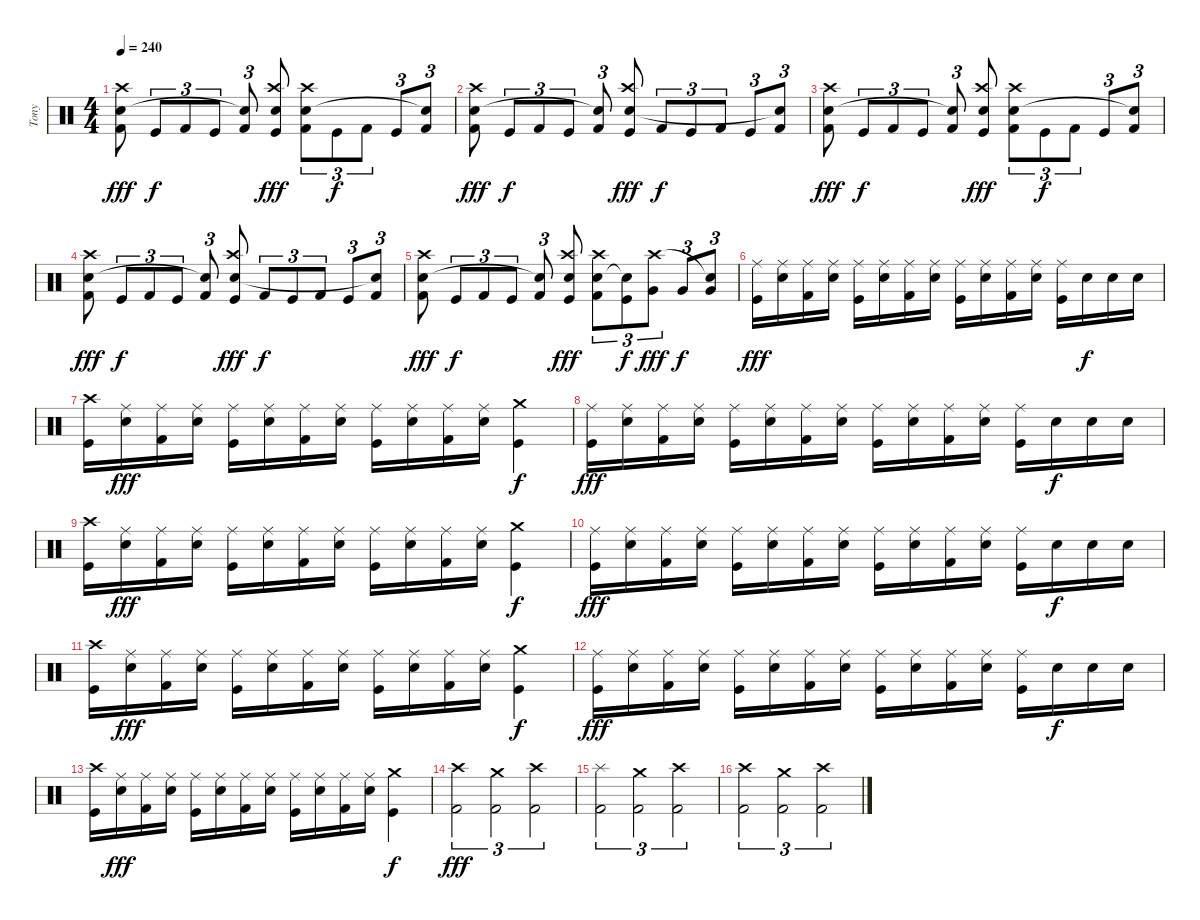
\track ("Tony" "Tony") {instrument percussion}
\staff {score}
\articulation defaults
\ts (4 4)
\tempo 240
\clef neutral
\ks c
("Kick (hit) 2" "Snare (hit) 2" "Crash high (hit)").8{dy fff} "Kick (hit)".8{tu (3 2) dy f} "Kick (hit) 2".8{tu (3 2)} "Kick (hit)".8{tu (3 2)} ("Kick (hit) 2" "Snare (hit)"{t}).8{tu (3 2)} ("Kick (hit)" "Snare (hit) 2" "Crash high (hit)").8{dy fff} ("Kick (hit) 2" "Snare (hit) 2" "Crash high (hit)").8{tu (3 2)} "Kick (hit)".8{tu (3 2) dy f} "Kick (hit) 2".8{tu (3 2)} "Kick (hit)".8{tu (3 2)} ("Kick (hit) 2" "Snare (hit)"{t}).8{tu (3 2)} |
("Kick (hit) 2" "Snare (hit) 2" "Crash high (hit)").8{dy fff} "Kick (hit)".8{tu (3 2) dy f} "Kick (hit) 2".8{tu (3 2)} "Kick (hit)".8{tu (3 2)} ("Kick (hit) 2" "Snare (hit)"{t}).8{tu (3 2)} ("Kick (hit)" "Snare (hit) 2" "Crash high (hit)").8{dy fff} "Kick (hit) 2".8{tu (3 2) dy f} "Kick (hit)".8{tu (3 2)} "Kick (hit) 2".8{tu (3 2)} "Kick (hit)".8{tu (3 2)} ("Kick (hit) 2" "Snare (hit)"{t}).8{tu (3 2)} |
("Kick (hit) 2" "Snare (hit) 2" "Crash high (hit)").8{dy fff} "Kick (hit)".8{tu (3 2) dy f} "Kick (hit) 2".8{tu (3 2)} "Kick (hit)".8{tu (3 2)} ("Kick (hit) 2" "Snare (hit)"{t}).8{tu (3 2)} ("Kick (hit)" "Snare (hit) 2" "Crash high (hit)").8{dy fff} ("Kick (hit) 2" "Snare (hit) 2" "Crash high (hit)").8{tu (3 2)} "Kick (hit)".8{tu (3 2) dy f} "Kick (hit) 2".8{tu (3 2)} "Kick (hit)".8{tu (3 2)} ("Kick (hit) 2" "Snare (hit)"{t}).8{tu (3 2)} |
("Kick (hit) 2" "Snare (hit) 2" "Crash high (hit)").8{dy fff} "Kick (hit)".8{tu (3 2) dy f} "Kick (hit) 2".8{tu (3 2)} "Kick (hit)".8{tu (3 2)} ("Kick (hit) 2" "Snare (hit)"{t}).8{tu (3 2)} ("Kick (hit)" "Snare (hit) 2" "Crash high (hit)").8{dy fff} "Kick (hit) 2".8{tu (3 2) dy f} "Kick (hit)".8{tu (3 2)} "Kick (hit) 2".8{tu (3 2)} "Kick (hit)".8{tu (3 2)} ("Kick (hit) 2" "Snare (hit)"{t}).8{tu (3 2)} |
("Kick (hit) 2" "Snare (hit) 2" "Crash high (hit)").8{dy fff} "Kick (hit)".8{tu (3 2) dy f} "Kick (hit) 2".8{tu (3 2)} "Kick (hit)".8{tu (3 2)} ("Kick (hit) 2" "Snare (hit)"{t}).8{tu (3 2)} ("Kick (hit)" "Snare (hit) 2" "Crash high (hit)").8{dy fff} ("Kick (hit) 2" "Snare (hit) 2" "Crash high (hit)").8{tu (3 2)} ("Kick (hit)" "Snare (hit)"{t}).8{tu (3 2) dy f} ("Very Low Tom (hit)" "Crash high (hit)").8{tu (3 2) dy fff} "Very Low Tom (hit)".8{tu (3 2) dy f} ("Very Low Tom (hit)" "Snare (hit)"{t}).8{tu (3 2)} |
("Kick (hit)" "Ride (middle)").16{dy fff} ("Snare (hit) 2" "Ride (middle)").16 ("Kick (hit) 2" "Ride (middle)").16 ("Snare (hit) 2" "Ride (middle)").16 ("Kick (hit)" "Ride (middle)").16 ("Snare (hit) 2" "Ride (middle)").16 ("Kick (hit) 2" "Ride (middle)").16 ("Snare (hit) 2" "Ride (middle)").16 ("Kick (hit)" "Ride (middle)").16 ("Snare (hit) 2" "Ride (middle)").16 ("Kick (hit) 2" "Ride (middle)").16 ("Snare (hit) 2" "Ride (middle)").16 ("Kick (hit)" "Ride (middle)").16 "Snare (hit) 2".16{dy f} "Snare (hit) 2".16 "Snare (hit) 2".16 |
("Kick (hit)" "Crash high (hit)").16 ("Snare (hit) 2" "Ride (middle)").16{dy fff} ("Kick (hit) 2" "Ride (middle)").16 ("Snare (hit) 2" "Ride (middle)").16 ("Kick (hit)" "Ride (middle)").16 ("Snare (hit) 2" "Ride (middle)").16 ("Kick (hit) 2" "Ride (middle)").16 ("Snare (hit) 2" "Ride (middle)").16 ("Kick (hit)" "Ride (middle)").16 ("Snare (hit) 2" "Ride (middle)").16 ("Kick (hit) 2" "Ride (middle)").16 ("Snare (hit) 2" "Ride (middle)").16 ("Kick (hit)" "Crash medium (hit)").4{dy f} |
("Kick (hit)" "Ride (middle)").16{dy fff} ("Snare (hit) 2" "Ride (middle)").16 ("Kick (hit) 2" "Ride (middle)").16 ("Snare (hit) 2" "Ride (middle)").16 ("Kick (hit)" "Ride (middle)").16 ("Snare (hit) 2" "Ride (middle)").16 ("Kick (hit) 2" "Ride (middle)").16 ("Snare (hit) 2" "Ride (middle)").16 ("Kick (hit)" "Ride (middle)").16 ("Snare (hit) 2" "Ride (middle)").16 ("Kick (hit) 2" "Ride (middle)").16 ("Snare (hit) 2" "Ride (middle)").16 ("Kick (hit)" "Ride (middle)").16 "Snare (hit) 2".16{dy f} "Snare (hit) 2".16 "Snare (hit) 2".16 |
("Kick (hit)" "Crash high (hit)").16 ("Snare (hit) 2" "Ride (middle)").16{dy fff} ("Kick (hit) 2" "Ride (middle)").16 ("Snare (hit) 2" "Ride (middle)").16 ("Kick (hit)" "Ride (middle)").16 ("Snare (hit) 2" "Ride (middle)").16 ("Kick (hit) 2" "Ride (middle)").16 ("Snare (hit) 2" "Ride (middle)").16 ("Kick (hit)" "Ride (middle)").16 ("Snare (hit) 2" "Ride (middle)").16 ("Kick (hit) 2" "Ride (middle)").16 ("Snare (hit) 2" "Ride (middle)").16 ("Kick (hit)" "Crash medium (hit)").4{dy f} |
("Kick (hit)" "Ride (middle)").16{dy fff} ("Snare (hit) 2" "Ride (middle)").16 ("Kick (hit) 2" "Ride (middle)").16 ("Snare (hit) 2" "Ride (middle)").16 ("Kick (hit)" "Ride (middle)").16 ("Snare (hit) 2" "Ride (middle)").16 ("Kick (hit) 2" "Ride (middle)").16 ("Snare (hit) 2" "Ride (middle)").16 ("Kick (hit)" "Ride (middle)").16 ("Snare (hit) 2" "Ride (middle)").16 ("Kick (hit) 2" "Ride (middle)").16 ("Snare (hit) 2" "Ride (middle)").16 ("Kick (hit)" "Ride (middle)").16 "Snare (hit) 2".16{dy f} "Snare (hit) 2".16 "Snare (hit) 2".16 |
("Kick (hit)" "Crash high (hit)").16 ("Snare (hit) 2" "Ride (middle)").16{dy fff} ("Kick (hit) 2" "Ride (middle)").16 ("Snare (hit) 2" "Ride (middle)").16 ("Kick (hit)" "Ride (middle)").16 ("Snare (hit) 2" "Ride (middle)").16 ("Kick (hit) 2" "Ride (middle)").16 ("Snare (hit) 2" "Ride (middle)").16 ("Kick (hit)" "Ride (middle)").16 ("Snare (hit) 2" "Ride (middle)").16 ("Kick (hit) 2" "Ride (middle)").16 ("Snare (hit) 2" "Ride (middle)").16 ("Kick (hit)" "Crash medium (hit)").4{dy f} |
("Kick (hit)" "Ride (middle)").16{dy fff} ("Snare (hit) 2" "Ride (middle)").16 ("Kick (hit) 2" "Ride (middle)").16 ("Snare (hit) 2" "Ride (middle)").16 ("Kick (hit)" "Ride (middle)").16 ("Snare (hit) 2" "Ride (middle)").16 ("Kick (hit) 2" "Ride (middle)").16 ("Snare (hit) 2" "Ride (middle)").16 ("Kick (hit)" "Ride (middle)").16 ("Snare (hit) 2" "Ride (middle)").16 ("Kick (hit) 2" "Ride (middle)").16 ("Snare (hit) 2" "Ride (middle)").16 ("Kick (hit)" "Ride (middle)").16 "Snare (hit) 2".16{dy f} "Snare (hit) 2".16 "Snare (hit) 2".16 |
("Kick (hit)" "Crash high (hit)").16 ("Snare (hit) 2" "Ride (middle)").16{dy fff} ("Kick (hit) 2" "Ride (middle)").16 ("Snare (hit) 2" "Ride (middle)").16 ("Kick (hit)" "Ride (middle)").16 ("Snare (hit) 2" "Ride (middle)").16 ("Kick (hit) 2" "Ride (middle)").16 ("Snare (hit) 2" "Ride (middle)").16 ("Kick (hit)" "Ride (middle)").16 ("Snare (hit) 2" "Ride (middle)").16 ("Kick (hit) 2" "Ride (middle)").16 ("Snare (hit) 2" "Ride (middle)").16 ("Kick (hit)" "Crash medium (hit)").4{dy f} |
("Kick (hit) 2" "Crash high (hit)").2{tu (3 2) dy fff} ("Kick (hit) 2" "Crash medium (hit)").2{tu (3 2)} ("Kick (hit) 2" "Crash high (hit)").2{tu (3 2)} |
("Kick (hit) 2" "Splash (hit)").2{tu (3 2)} ("Kick (hit) 2" "Crash medium (hit)").2{tu (3 2)} ("Kick (hit) 2" "Crash high (hit)").2{tu (3 2)} |
("Kick (hit) 2" "Crash high (hit)").2{tu (3 2)} ("Kick (hit) 2" "Crash medium (hit)").2{tu (3 2)} ("Kick (hit) 2" "Crash high (hit)").2{tu (3 2)}
